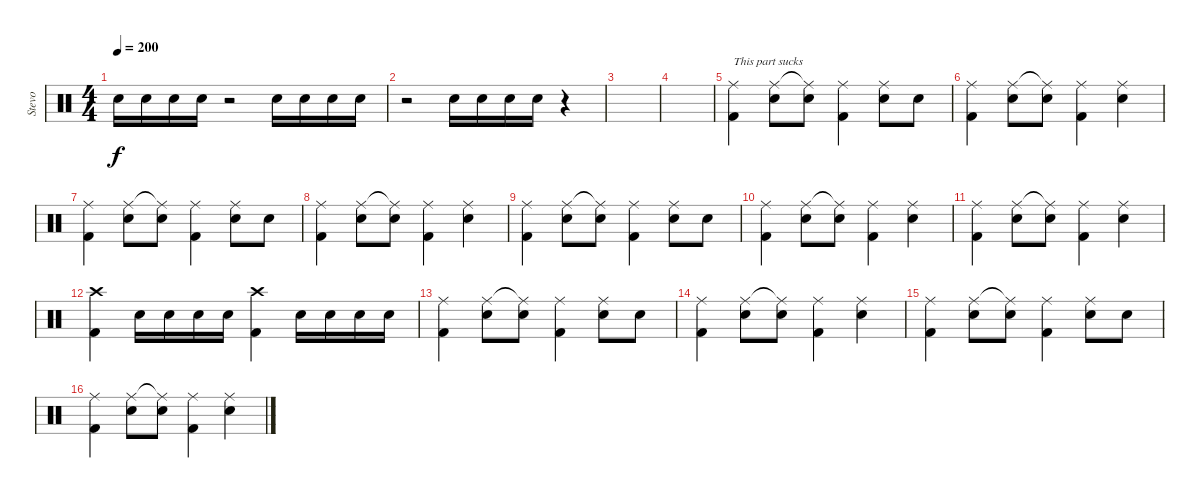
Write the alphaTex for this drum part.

\track ("Stevo" "Stevo") {instrument percussion}
\staff {score}
\articulation defaults
\ts (4 4)
\tempo 200
\clef neutral
\ks c "Snare (hit) 2".16{dy f} "Snare (hit) 2".16 "Snare (hit) 2".16 "Snare (hit) 2".16
r.2 "Snare (hit) 2".16 "Snare (hit) 2".16 "Snare (hit) 2".16 "Snare (hit) 2".16 |
r.2 "Snare (hit) 2".16 "Snare (hit) 2".16 "Snare (hit) 2".16 "Snare (hit) 2".16 r.4 |
|
|
("Kick (hit) 2" "Ride (middle)").4{txt "This part sucks"} ("Ride (middle)" "Snare (hit) 2").8 ("Ride (middle)"{t} "Snare (hit) 2").8 ("Kick (hit) 2" "Ride (middle)").4 ("Ride (middle)" "Snare (hit) 2").8 "Snare (hit) 2".8 |
("Kick (hit) 2" "Ride (middle)").4 ("Ride (middle)" "Snare (hit) 2").8 ("Ride (middle)"{t} "Snare (hit) 2").8 ("Kick (hit) 2" "Ride (middle)").4 ("Ride (middle)" "Snare (hit) 2").4 |
("Kick (hit) 2" "Ride (middle)").4 ("Ride (middle)" "Snare (hit) 2").8 ("Ride (middle)"{t} "Snare (hit) 2").8 ("Kick (hit) 2" "Ride (middle)").4 ("Ride (middle)" "Snare (hit) 2").8 "Snare (hit) 2".8 |
("Kick (hit) 2" "Ride (middle)").4 ("Ride (middle)" "Snare (hit) 2").8 ("Ride (middle)"{t} "Snare (hit) 2").8 ("Kick (hit) 2" "Ride (middle)").4 ("Ride (middle)" "Snare (hit) 2").4 |
("Kick (hit) 2" "Ride (middle)").4 ("Ride (middle)" "Snare (hit) 2").8 ("Ride (middle)"{t} "Snare (hit) 2").8 ("Kick (hit) 2" "Ride (middle)").4 ("Ride (middle)" "Snare (hit) 2").8 "Snare (hit) 2".8 |
("Kick (hit) 2" "Ride (middle)").4 ("Ride (middle)" "Snare (hit) 2").8 ("Ride (middle)"{t} "Snare (hit) 2").8 ("Kick (hit) 2" "Ride (middle)").4 ("Ride (middle)" "Snare (hit) 2").4 |
("Kick (hit) 2" "Ride (middle)").4 ("Ride (middle)" "Snare (hit) 2").8 ("Ride (middle)"{t} "Snare (hit) 2").8 ("Kick (hit) 2" "Ride (middle)").4 ("Ride (middle)" "Snare (hit) 2").4 |
("Kick (hit) 2" "Crash high (hit)").4 "Snare (hit) 2".16 "Snare (hit) 2".16 "Snare (hit) 2".16 "Snare (hit) 2".16 ("Kick (hit) 2" "Crash high (hit)").4 "Snare (hit) 2".16 "Snare (hit) 2".16 "Snare (hit) 2".16 "Snare (hit) 2".16 |
("Kick (hit) 2" "Ride (middle)").4 ("Ride (middle)" "Snare (hit) 2").8 ("Ride (middle)"{t} "Snare (hit) 2").8 ("Kick (hit) 2" "Ride (middle)").4 ("Ride (middle)" "Snare (hit) 2").8 "Snare (hit) 2".8 |
("Kick (hit) 2" "Ride (middle)").4 ("Ride (middle)" "Snare (hit) 2").8 ("Ride (middle)"{t} "Snare (hit) 2").8 ("Kick (hit) 2" "Ride (middle)").4 ("Ride (middle)" "Snare (hit) 2").4 |
("Kick (hit) 2" "Ride (middle)").4 ("Ride (middle)" "Snare (hit) 2").8 ("Ride (middle)"{t} "Snare (hit) 2").8 ("Kick (hit) 2" "Ride (middle)").4 ("Ride (middle)" "Snare (hit) 2").8 "Snare (hit) 2".8 |
("Kick (hit) 2" "Ride (middle)").4 ("Ride (middle)" "Snare (hit) 2").8 ("Ride (middle)"{t} "Snare (hit) 2").8 ("Kick (hit) 2" "Ride (middle)").4 ("Ride (middle)" "Snare (hit) 2").4
